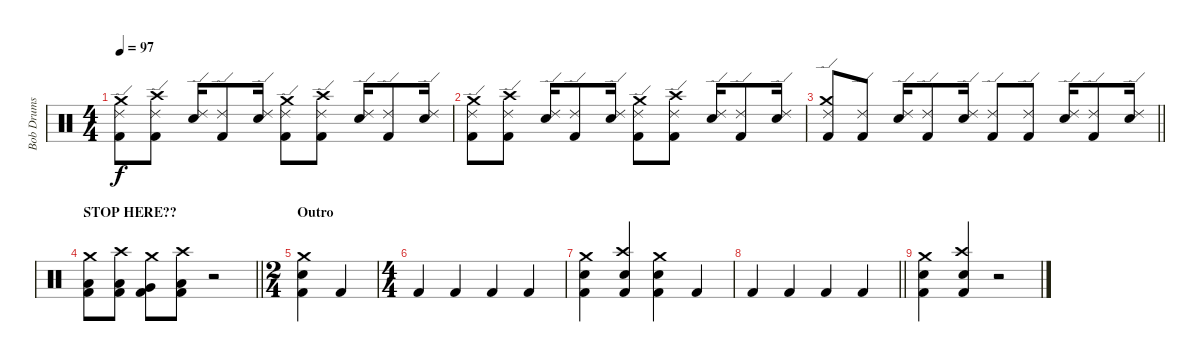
\track ("Bob Drums" "Bob Drums") {instrument percussion}
\staff {score}
\articulation defaults
\ts (4 4)
\tempo 97
\clef neutral
\ks c
("Ride (edge) 2" "Crash medium (hit)" "Kick (hit) 2").8{dy f} ("Ride (edge) 2" "Crash high (hit)" "Kick (hit) 2").8 ("Ride (edge) 2" "Snare (hit) 2").16 ("Ride (edge) 2" "Kick (hit) 2").8 ("Ride (edge) 2" "Snare (hit) 2").16 ("Ride (edge) 2" "Crash medium (hit)" "Kick (hit) 2").8 ("Ride (edge) 2" "Crash high (hit)" "Kick (hit) 2").8 ("Ride (edge) 2" "Snare (hit) 2").16 ("Ride (edge) 2" "Kick (hit) 2").8 ("Ride (edge) 2" "Snare (hit) 2").16 |
("Ride (edge) 2" "Crash medium (hit)" "Kick (hit) 2").8 ("Ride (edge) 2" "Crash high (hit)" "Kick (hit) 2").8 ("Ride (edge) 2" "Snare (hit) 2").16 ("Ride (edge) 2" "Kick (hit) 2").8 ("Ride (edge) 2" "Snare (hit) 2").16 ("Ride (edge) 2" "Crash medium (hit)" "Kick (hit) 2").8 ("Ride (edge) 2" "Crash high (hit)" "Kick (hit) 2").8 ("Ride (edge) 2" "Snare (hit) 2").16 ("Ride (edge) 2" "Kick (hit) 2").8 ("Ride (edge) 2" "Snare (hit) 2").16 |
\barLineRight lightlight
("Ride (edge) 2" "Crash medium (hit)" "Kick (hit) 2").8 ("Ride (edge) 2" "Kick (hit) 2").8 ("Ride (edge) 2" "Snare (hit) 2").16 ("Ride (edge) 2" "Kick (hit) 2").8 ("Ride (edge) 2" "Snare (hit) 2").16 ("Ride (edge) 2" "Kick (hit) 2").8 ("Ride (edge) 2" "Kick (hit) 2").8 ("Ride (edge) 2" "Snare (hit) 2").16 ("Ride (edge) 2" "Kick (hit) 2").8 ("Ride (edge) 2" "Snare (hit) 2").16 |
\section ("" "STOP HERE??")
\barLineRight lightlight
("Crash medium (hit)" "Low Tom (hit)" "Kick (hit) 2").8 ("Crash high (hit)" "Low Tom (hit)" "Kick (hit) 2").8 ("Crash medium (hit)" "Very Low Tom (hit)" "Kick (hit) 2").8 ("Crash high (hit)" "Low Floor Tom (hit)" "Kick (hit) 2").8 r.2 |
\ts (2 4)
\section ("" "Outro")
("Crash medium (hit)" "Snare (hit) 2" "Kick (hit) 2").4 "Kick (hit) 2".4 |
\ts (4 4)
"Kick (hit) 2".4 "Kick (hit) 2".4 "Kick (hit) 2".4 "Kick (hit) 2".4 |
("Crash medium (hit)" "Snare (hit) 2" "Kick (hit) 2").4 ("Crash high (hit)" "Snare (hit) 2" "Kick (hit) 2").4 ("Crash medium (hit)" "Snare (hit) 2" "Kick (hit) 2").4 "Kick (hit) 2".4 |
\barLineRight lightlight "Kick (hit) 2".4 "Kick (hit) 2".4 "Kick (hit) 2".4 "Kick (hit) 2".4
|
("Crash medium (hit)" "Snare (hit) 2" "Kick (hit) 2").4 ("Crash high (hit)" "Snare (hit) 2" "Kick (hit) 2").4 r.2
